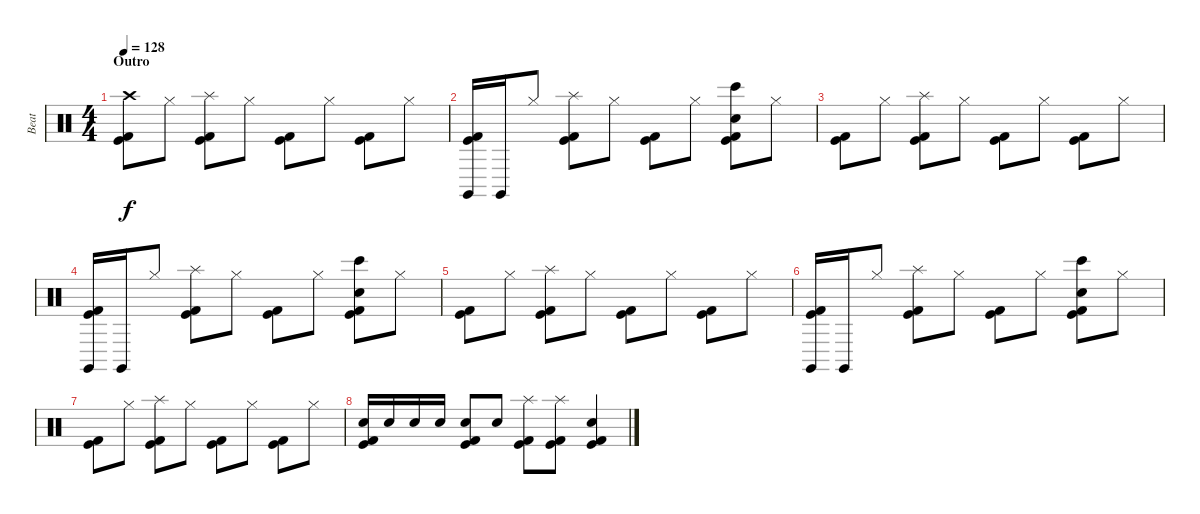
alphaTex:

\track ("Beat" "Beat") {instrument percussion}
\staff {score}
\articulation defaults
\ts (4 4)
\section ("" "Outro")
\tempo 128
\clef neutral
\ks c
("Crash high (hit)" "Kick (hit) 2" "Kick (hit)").8{dy f} "Hi-Hat (closed)".8 ("Splash (hit)" "Kick (hit) 2" "Kick (hit)").8 "Hi-Hat (closed)".8 ("Kick (hit) 2" "Kick (hit)").8 "Hi-Hat (closed)".8 ("Kick (hit) 2" "Kick (hit)").8 "Hi-Hat (closed)".8 |
("Claves (hit)" "Kick (hit) 2" "Kick (hit)").16 "Claves (hit)".16 "Hi-Hat (closed)".8 ("Splash (hit)" "Kick (hit) 2" "Kick (hit)").8 "Hi-Hat (closed)".8 ("Kick (hit) 2" "Kick (hit)").8 "Hi-Hat (closed)".8 ("Bongo High (hit)" "Snare (hit) 2" "Kick (hit) 2" "Kick (hit)").8 "Hi-Hat (closed)".8 |
("Kick (hit) 2" "Kick (hit)").8 "Hi-Hat (closed)".8 ("Splash (hit)" "Kick (hit) 2" "Kick (hit)").8 "Hi-Hat (closed)".8 ("Kick (hit) 2" "Kick (hit)").8 "Hi-Hat (closed)".8 ("Kick (hit) 2" "Kick (hit)").8 "Hi-Hat (closed)".8 |
("Claves (hit)" "Kick (hit) 2" "Kick (hit)").16 "Claves (hit)".16 "Hi-Hat (closed)".8 ("Splash (hit)" "Kick (hit) 2" "Kick (hit)").8 "Hi-Hat (closed)".8 ("Kick (hit) 2" "Kick (hit)").8 "Hi-Hat (closed)".8 ("Bongo High (hit)" "Snare (hit) 2" "Kick (hit) 2" "Kick (hit)").8 "Hi-Hat (closed)".8 |
("Kick (hit) 2" "Kick (hit)").8 "Hi-Hat (closed)".8 ("Splash (hit)" "Kick (hit) 2" "Kick (hit)").8 "Hi-Hat (closed)".8 ("Kick (hit) 2" "Kick (hit)").8 "Hi-Hat (closed)".8 ("Kick (hit) 2" "Kick (hit)").8 "Hi-Hat (closed)".8 |
("Claves (hit)" "Kick (hit) 2" "Kick (hit)").16 "Claves (hit)".16 "Hi-Hat (closed)".8 ("Splash (hit)" "Kick (hit) 2" "Kick (hit)").8 "Hi-Hat (closed)".8 ("Kick (hit) 2" "Kick (hit)").8 "Hi-Hat (closed)".8 ("Bongo High (hit)" "Snare (hit) 2" "Kick (hit) 2" "Kick (hit)").8 "Hi-Hat (closed)".8 |
("Kick (hit) 2" "Kick (hit)").8 "Hi-Hat (closed)".8 ("Splash (hit)" "Kick (hit) 2" "Kick (hit)").8 "Hi-Hat (closed)".8 ("Kick (hit) 2" "Kick (hit)").8 "Hi-Hat (closed)".8 ("Kick (hit) 2" "Kick (hit)").8 "Hi-Hat (closed)".8 |
("Electric Snare (hit)" "Kick (hit) 2" "Kick (hit)").16 "Electric Snare (hit)".16 "Electric Snare (hit)".16 "Electric Snare (hit)".16 ("Electric Snare (hit)" "Kick (hit) 2" "Kick (hit)").8 "Electric Snare (hit)".8 ("Splash (hit)" "Kick (hit) 2" "Kick (hit)").8 ("Splash (hit)" "Kick (hit) 2" "Kick (hit)").8 ("Snare (hit) 2" "Kick (hit) 2" "Kick (hit)").4
